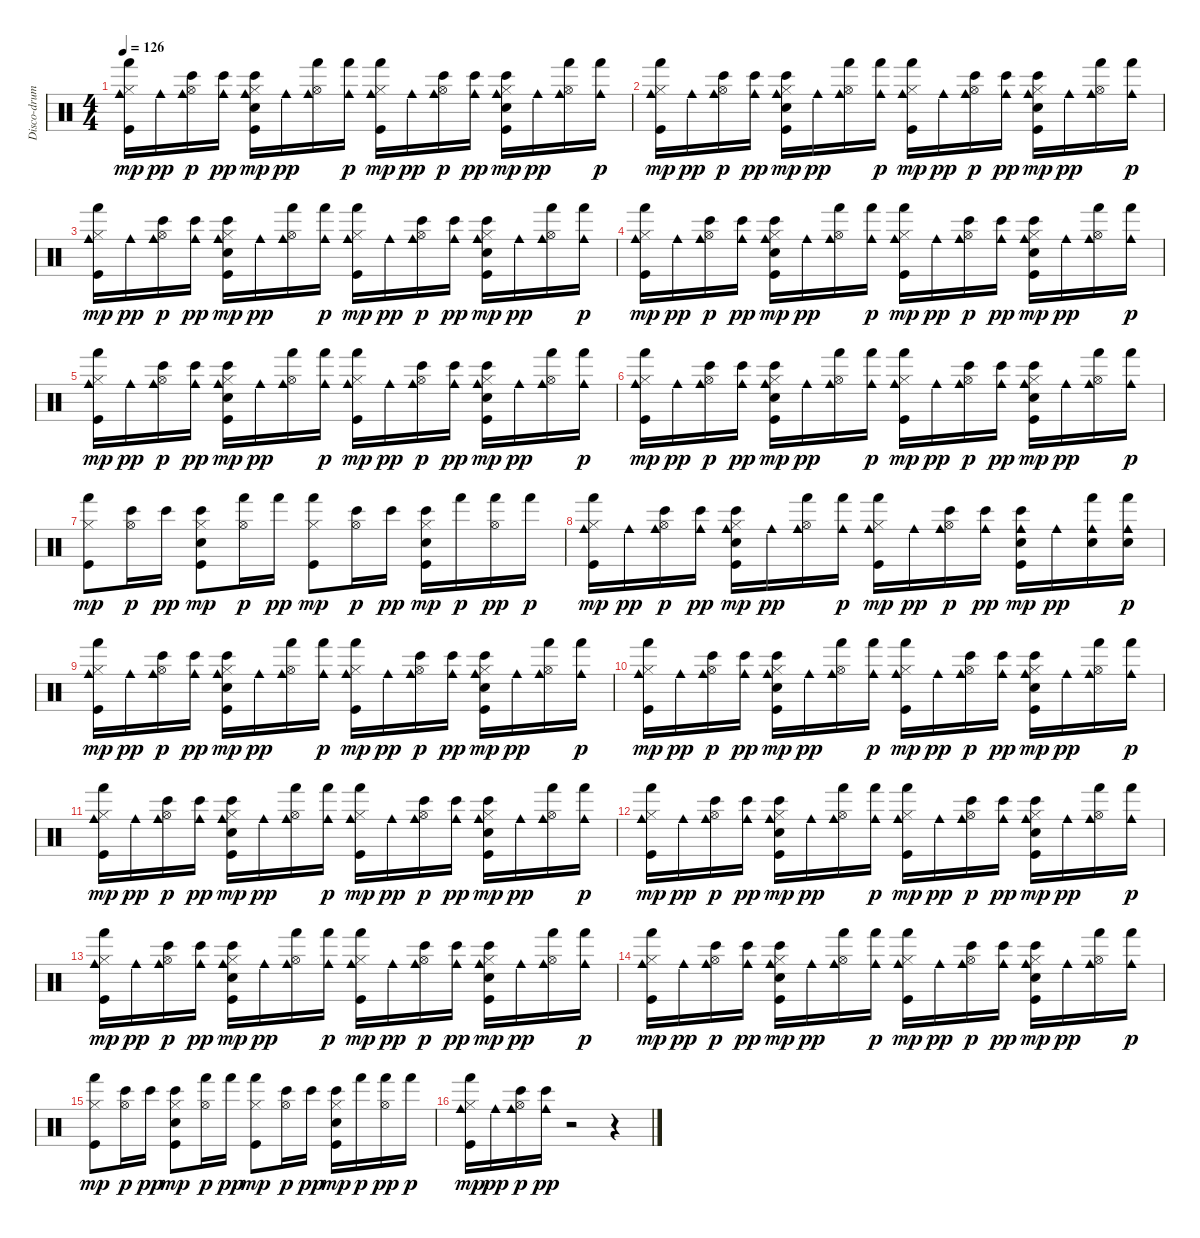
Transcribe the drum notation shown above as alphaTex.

\track ("Disco-drums !" "Disco-drum") {instrument percussion}
\staff {score}
\articulation defaults
\ts (4 4)
\tempo 126
\clef neutral
\ks c
("Hi-Hat (closed)" "Kick (hit)" "Cowbell medium (hit)" "Hand (hit)").16{dy mp} "Cowbell medium (hit)".16{dy pp} ("Hi-Hat (open)" "Cowbell medium (hit)" "Bongo High (hit)").16{dy p} ("Cowbell medium (hit)" "Bongo High (hit)").16{dy pp} ("Hi-Hat (closed)" "Kick (hit)" "Snare (hit) 2" "Cowbell medium (hit)" "Bongo High (hit)").16{dy mp} "Cowbell medium (hit)".16{dy pp} ("Hi-Hat (open)" "Cowbell medium (hit)" "Hand (hit)").16 ("Cowbell medium (hit)" "Hand (hit)").16{dy p} ("Hi-Hat (closed)" "Kick (hit)" "Cowbell medium (hit)" "Hand (hit)").16{dy mp} "Cowbell medium (hit)".16{dy pp} ("Hi-Hat (open)" "Cowbell medium (hit)" "Bongo High (hit)").16{dy p} ("Cowbell medium (hit)" "Bongo High (hit)").16{dy pp} ("Hi-Hat (closed)" "Kick (hit)" "Snare (hit) 2" "Cowbell medium (hit)" "Bongo High (hit)").16{dy mp} "Cowbell medium (hit)".16{dy pp} ("Hi-Hat (open)" "Cowbell medium (hit)" "Hand (hit)").16 ("Cowbell medium (hit)" "Hand (hit)").16{dy p} |
("Hi-Hat (closed)" "Kick (hit)" "Cowbell medium (hit)" "Hand (hit)").16{dy mp} "Cowbell medium (hit)".16{dy pp} ("Hi-Hat (open)" "Cowbell medium (hit)" "Bongo High (hit)").16{dy p} ("Cowbell medium (hit)" "Bongo High (hit)").16{dy pp} ("Hi-Hat (closed)" "Kick (hit)" "Snare (hit) 2" "Cowbell medium (hit)" "Bongo High (hit)").16{dy mp} "Cowbell medium (hit)".16{dy pp} ("Hi-Hat (open)" "Cowbell medium (hit)" "Hand (hit)").16 ("Cowbell medium (hit)" "Hand (hit)").16{dy p} ("Hi-Hat (closed)" "Kick (hit)" "Cowbell medium (hit)" "Hand (hit)").16{dy mp} "Cowbell medium (hit)".16{dy pp} ("Hi-Hat (open)" "Cowbell medium (hit)" "Bongo High (hit)").16{dy p} ("Cowbell medium (hit)" "Bongo High (hit)").16{dy pp} ("Hi-Hat (closed)" "Kick (hit)" "Snare (hit) 2" "Cowbell medium (hit)" "Bongo High (hit)").16{dy mp} "Cowbell medium (hit)".16{dy pp} ("Hi-Hat (open)" "Cowbell medium (hit)" "Hand (hit)").16 ("Cowbell medium (hit)" "Hand (hit)").16{dy p} |
("Hi-Hat (closed)" "Kick (hit)" "Cowbell medium (hit)" "Hand (hit)").16{dy mp} "Cowbell medium (hit)".16{dy pp} ("Hi-Hat (open)" "Cowbell medium (hit)" "Bongo High (hit)").16{dy p} ("Cowbell medium (hit)" "Bongo High (hit)").16{dy pp} ("Hi-Hat (closed)" "Kick (hit)" "Snare (hit) 2" "Cowbell medium (hit)" "Bongo High (hit)").16{dy mp} "Cowbell medium (hit)".16{dy pp} ("Hi-Hat (open)" "Cowbell medium (hit)" "Hand (hit)").16 ("Cowbell medium (hit)" "Hand (hit)").16{dy p} ("Hi-Hat (closed)" "Kick (hit)" "Cowbell medium (hit)" "Hand (hit)").16{dy mp} "Cowbell medium (hit)".16{dy pp} ("Hi-Hat (open)" "Cowbell medium (hit)" "Bongo High (hit)").16{dy p} ("Cowbell medium (hit)" "Bongo High (hit)").16{dy pp} ("Hi-Hat (closed)" "Kick (hit)" "Snare (hit) 2" "Cowbell medium (hit)" "Bongo High (hit)").16{dy mp} "Cowbell medium (hit)".16{dy pp} ("Hi-Hat (open)" "Cowbell medium (hit)" "Hand (hit)").16 ("Cowbell medium (hit)" "Hand (hit)").16{dy p} |
("Hi-Hat (closed)" "Kick (hit)" "Cowbell medium (hit)" "Hand (hit)").16{dy mp} "Cowbell medium (hit)".16{dy pp} ("Hi-Hat (open)" "Cowbell medium (hit)" "Bongo High (hit)").16{dy p} ("Cowbell medium (hit)" "Bongo High (hit)").16{dy pp} ("Hi-Hat (closed)" "Kick (hit)" "Snare (hit) 2" "Cowbell medium (hit)" "Bongo High (hit)").16{dy mp} "Cowbell medium (hit)".16{dy pp} ("Hi-Hat (open)" "Cowbell medium (hit)" "Hand (hit)").16 ("Cowbell medium (hit)" "Hand (hit)").16{dy p} ("Hi-Hat (closed)" "Kick (hit)" "Cowbell medium (hit)" "Hand (hit)").16{dy mp} "Cowbell medium (hit)".16{dy pp} ("Hi-Hat (open)" "Cowbell medium (hit)" "Bongo High (hit)").16{dy p} ("Cowbell medium (hit)" "Bongo High (hit)").16{dy pp} ("Hi-Hat (closed)" "Kick (hit)" "Snare (hit) 2" "Cowbell medium (hit)" "Bongo High (hit)").16{dy mp} "Cowbell medium (hit)".16{dy pp} ("Hi-Hat (open)" "Cowbell medium (hit)" "Hand (hit)").16 ("Cowbell medium (hit)" "Hand (hit)").16{dy p} |
("Hi-Hat (closed)" "Kick (hit)" "Cowbell medium (hit)" "Hand (hit)").16{dy mp} "Cowbell medium (hit)".16{dy pp} ("Hi-Hat (open)" "Cowbell medium (hit)" "Bongo High (hit)").16{dy p} ("Cowbell medium (hit)" "Bongo High (hit)").16{dy pp} ("Hi-Hat (closed)" "Kick (hit)" "Snare (hit) 2" "Cowbell medium (hit)" "Bongo High (hit)").16{dy mp} "Cowbell medium (hit)".16{dy pp} ("Hi-Hat (open)" "Cowbell medium (hit)" "Hand (hit)").16 ("Cowbell medium (hit)" "Hand (hit)").16{dy p} ("Hi-Hat (closed)" "Kick (hit)" "Cowbell medium (hit)" "Hand (hit)").16{dy mp} "Cowbell medium (hit)".16{dy pp} ("Hi-Hat (open)" "Cowbell medium (hit)" "Bongo High (hit)").16{dy p} ("Cowbell medium (hit)" "Bongo High (hit)").16{dy pp} ("Hi-Hat (closed)" "Kick (hit)" "Snare (hit) 2" "Cowbell medium (hit)" "Bongo High (hit)").16{dy mp} "Cowbell medium (hit)".16{dy pp} ("Hi-Hat (open)" "Cowbell medium (hit)" "Hand (hit)").16 ("Cowbell medium (hit)" "Hand (hit)").16{dy p} |
("Hi-Hat (closed)" "Kick (hit)" "Cowbell medium (hit)" "Hand (hit)").16{dy mp} "Cowbell medium (hit)".16{dy pp} ("Hi-Hat (open)" "Cowbell medium (hit)" "Bongo High (hit)").16{dy p} ("Cowbell medium (hit)" "Bongo High (hit)").16{dy pp} ("Hi-Hat (closed)" "Kick (hit)" "Snare (hit) 2" "Cowbell medium (hit)" "Bongo High (hit)").16{dy mp} "Cowbell medium (hit)".16{dy pp} ("Hi-Hat (open)" "Cowbell medium (hit)" "Hand (hit)").16 ("Cowbell medium (hit)" "Hand (hit)").16{dy p} ("Hi-Hat (closed)" "Kick (hit)" "Cowbell medium (hit)" "Hand (hit)").16{dy mp} "Cowbell medium (hit)".16{dy pp} ("Hi-Hat (open)" "Cowbell medium (hit)" "Bongo High (hit)").16{dy p} ("Cowbell medium (hit)" "Bongo High (hit)").16{dy pp} ("Hi-Hat (closed)" "Kick (hit)" "Snare (hit) 2" "Cowbell medium (hit)" "Bongo High (hit)").16{dy mp} "Cowbell medium (hit)".16{dy pp} ("Hi-Hat (open)" "Cowbell medium (hit)" "Hand (hit)").16 ("Cowbell medium (hit)" "Hand (hit)").16{dy p} |
("Hi-Hat (closed)" "Kick (hit)" "Hand (hit)").8{dy mp} ("Hi-Hat (open)" "Bongo High (hit)").16{dy p} "Bongo High (hit)".16{dy pp} ("Hi-Hat (closed)" "Kick (hit)" "Snare (hit) 2" "Bongo High (hit)").8{dy mp} ("Hi-Hat (open)" "Hand (hit)").16{dy p} "Hand (hit)".16{dy pp} ("Hi-Hat (closed)" "Kick (hit)" "Hand (hit)").8{dy mp} ("Hi-Hat (open)" "Bongo High (hit)").16{dy p} "Bongo High (hit)".16{dy pp} ("Hi-Hat (closed)" "Kick (hit)" "Snare (hit) 2" "Bongo High (hit)").16{dy mp} "Hand (hit)".16{dy p} ("Hi-Hat (open)" "Hand (hit)").16{dy pp} "Hand (hit)".16{dy p} |
("Hi-Hat (closed)" "Kick (hit)" "Cowbell medium (hit)" "Hand (hit)").16{dy mp} "Cowbell medium (hit)".16{dy pp} ("Hi-Hat (open)" "Cowbell medium (hit)" "Bongo High (hit)").16{dy p} ("Cowbell medium (hit)" "Bongo High (hit)").16{dy pp} ("Hi-Hat (closed)" "Kick (hit)" "Snare (hit) 2" "Cowbell medium (hit)" "Bongo High (hit)").16{dy mp} "Cowbell medium (hit)".16{dy pp} ("Hi-Hat (open)" "Cowbell medium (hit)" "Hand (hit)").16 ("Cowbell medium (hit)" "Hand (hit)").16{dy p} ("Hi-Hat (closed)" "Kick (hit)" "Cowbell medium (hit)" "Hand (hit)").16{dy mp} "Cowbell medium (hit)".16{dy pp} ("Hi-Hat (open)" "Cowbell medium (hit)" "Bongo High (hit)").16{dy p} ("Cowbell medium (hit)" "Bongo High (hit)").16{dy pp} ("Kick (hit)" "Snare (hit) 2" "Cowbell medium (hit)" "Bongo High (hit)").16{dy mp} "Cowbell medium (hit)".16{dy pp} ("Snare (hit) 2" "Cowbell medium (hit)" "Hand (hit)").16 ("Snare (hit) 2" "Cowbell medium (hit)" "Hand (hit)").16{dy p} |
("Hi-Hat (closed)" "Kick (hit)" "Cowbell medium (hit)" "Hand (hit)").16{dy mp volume 11} "Cowbell medium (hit)".16{dy pp} ("Hi-Hat (open)" "Cowbell medium (hit)" "Bongo High (hit)").16{dy p} ("Cowbell medium (hit)" "Bongo High (hit)").16{dy pp} ("Hi-Hat (closed)" "Kick (hit)" "Snare (hit) 2" "Cowbell medium (hit)" "Bongo High (hit)").16{dy mp volume 10} "Cowbell medium (hit)".16{dy pp} ("Hi-Hat (open)" "Cowbell medium (hit)" "Hand (hit)").16 ("Cowbell medium (hit)" "Hand (hit)").16{dy p} ("Hi-Hat (closed)" "Kick (hit)" "Cowbell medium (hit)" "Hand (hit)").16{dy mp volume 10} "Cowbell medium (hit)".16{dy pp} ("Hi-Hat (open)" "Cowbell medium (hit)" "Bongo High (hit)").16{dy p} ("Cowbell medium (hit)" "Bongo High (hit)").16{dy pp} ("Hi-Hat (closed)" "Kick (hit)" "Snare (hit) 2" "Cowbell medium (hit)" "Bongo High (hit)").16{dy mp volume 10} "Cowbell medium (hit)".16{dy pp} ("Hi-Hat (open)" "Cowbell medium (hit)" "Hand (hit)").16 ("Cowbell medium (hit)" "Hand (hit)").16{dy p} |
("Hi-Hat (closed)" "Kick (hit)" "Cowbell medium (hit)" "Hand (hit)").16{dy mp volume 9} "Cowbell medium (hit)".16{dy pp} ("Hi-Hat (open)" "Cowbell medium (hit)" "Bongo High (hit)").16{dy p} ("Cowbell medium (hit)" "Bongo High (hit)").16{dy pp} ("Hi-Hat (closed)" "Kick (hit)" "Snare (hit) 2" "Cowbell medium (hit)" "Bongo High (hit)").16{dy mp volume 9} "Cowbell medium (hit)".16{dy pp} ("Hi-Hat (open)" "Cowbell medium (hit)" "Hand (hit)").16 ("Cowbell medium (hit)" "Hand (hit)").16{dy p} ("Hi-Hat (closed)" "Kick (hit)" "Cowbell medium (hit)" "Hand (hit)").16{dy mp volume 8} "Cowbell medium (hit)".16{dy pp} ("Hi-Hat (open)" "Cowbell medium (hit)" "Bongo High (hit)").16{dy p} ("Cowbell medium (hit)" "Bongo High (hit)").16{dy pp} ("Hi-Hat (closed)" "Kick (hit)" "Snare (hit) 2" "Cowbell medium (hit)" "Bongo High (hit)").16{dy mp volume 8} "Cowbell medium (hit)".16{dy pp} ("Hi-Hat (open)" "Cowbell medium (hit)" "Hand (hit)").16 ("Cowbell medium (hit)" "Hand (hit)").16{dy p} |
("Hi-Hat (closed)" "Kick (hit)" "Cowbell medium (hit)" "Hand (hit)").16{dy mp volume 8} "Cowbell medium (hit)".16{dy pp} ("Hi-Hat (open)" "Cowbell medium (hit)" "Bongo High (hit)").16{dy p} ("Cowbell medium (hit)" "Bongo High (hit)").16{dy pp} ("Hi-Hat (closed)" "Kick (hit)" "Snare (hit) 2" "Cowbell medium (hit)" "Bongo High (hit)").16{dy mp volume 7} "Cowbell medium (hit)".16{dy pp} ("Hi-Hat (open)" "Cowbell medium (hit)" "Hand (hit)").16 ("Cowbell medium (hit)" "Hand (hit)").16{dy p} ("Hi-Hat (closed)" "Kick (hit)" "Cowbell medium (hit)" "Hand (hit)").16{dy mp volume 7} "Cowbell medium (hit)".16{dy pp} ("Hi-Hat (open)" "Cowbell medium (hit)" "Bongo High (hit)").16{dy p} ("Cowbell medium (hit)" "Bongo High (hit)").16{dy pp} ("Hi-Hat (closed)" "Kick (hit)" "Snare (hit) 2" "Cowbell medium (hit)" "Bongo High (hit)").16{dy mp volume 6} "Cowbell medium (hit)".16{dy pp} ("Hi-Hat (open)" "Cowbell medium (hit)" "Hand (hit)").16 ("Cowbell medium (hit)" "Hand (hit)").16{dy p} |
("Hi-Hat (closed)" "Kick (hit)" "Cowbell medium (hit)" "Hand (hit)").16{dy mp volume 6} "Cowbell medium (hit)".16{dy pp} ("Hi-Hat (open)" "Cowbell medium (hit)" "Bongo High (hit)").16{dy p} ("Cowbell medium (hit)" "Bongo High (hit)").16{dy pp} ("Hi-Hat (closed)" "Kick (hit)" "Snare (hit) 2" "Cowbell medium (hit)" "Bongo High (hit)").16{dy mp volume 6} "Cowbell medium (hit)".16{dy pp} ("Hi-Hat (open)" "Cowbell medium (hit)" "Hand (hit)").16 ("Cowbell medium (hit)" "Hand (hit)").16{dy p} ("Hi-Hat (closed)" "Kick (hit)" "Cowbell medium (hit)" "Hand (hit)").16{dy mp volume 5} "Cowbell medium (hit)".16{dy pp} ("Hi-Hat (open)" "Cowbell medium (hit)" "Bongo High (hit)").16{dy p} ("Cowbell medium (hit)" "Bongo High (hit)").16{dy pp} ("Hi-Hat (closed)" "Kick (hit)" "Snare (hit) 2" "Cowbell medium (hit)" "Bongo High (hit)").16{dy mp volume 5} "Cowbell medium (hit)".16{dy pp} ("Hi-Hat (open)" "Cowbell medium (hit)" "Hand (hit)").16 ("Cowbell medium (hit)" "Hand (hit)").16{dy p} |
("Hi-Hat (closed)" "Kick (hit)" "Cowbell medium (hit)" "Hand (hit)").16{dy mp volume 5} "Cowbell medium (hit)".16{dy pp} ("Hi-Hat (open)" "Cowbell medium (hit)" "Bongo High (hit)").16{dy p} ("Cowbell medium (hit)" "Bongo High (hit)").16{dy pp} ("Hi-Hat (closed)" "Kick (hit)" "Snare (hit) 2" "Cowbell medium (hit)" "Bongo High (hit)").16{dy mp volume 4} "Cowbell medium (hit)".16{dy pp} ("Hi-Hat (open)" "Cowbell medium (hit)" "Hand (hit)").16 ("Cowbell medium (hit)" "Hand (hit)").16{dy p} ("Hi-Hat (closed)" "Kick (hit)" "Cowbell medium (hit)" "Hand (hit)").16{dy mp volume 4} "Cowbell medium (hit)".16{dy pp} ("Hi-Hat (open)" "Cowbell medium (hit)" "Bongo High (hit)").16{dy p} ("Cowbell medium (hit)" "Bongo High (hit)").16{dy pp} ("Hi-Hat (closed)" "Kick (hit)" "Snare (hit) 2" "Cowbell medium (hit)" "Bongo High (hit)").16{dy mp volume 4} "Cowbell medium (hit)".16{dy pp} ("Hi-Hat (open)" "Cowbell medium (hit)" "Hand (hit)").16 ("Cowbell medium (hit)" "Hand (hit)").16{dy p} |
("Hi-Hat (closed)" "Kick (hit)" "Cowbell medium (hit)" "Hand (hit)").16{dy mp volume 3} "Cowbell medium (hit)".16{dy pp} ("Hi-Hat (open)" "Cowbell medium (hit)" "Bongo High (hit)").16{dy p} ("Cowbell medium (hit)" "Bongo High (hit)").16{dy pp volume 3} ("Hi-Hat (closed)" "Kick (hit)" "Snare (hit) 2" "Cowbell medium (hit)" "Bongo High (hit)").16{dy mp} "Cowbell medium (hit)".16{dy pp} ("Hi-Hat (open)" "Cowbell medium (hit)" "Hand (hit)").16 ("Cowbell medium (hit)" "Hand (hit)").16{dy p volume 2} ("Hi-Hat (closed)" "Kick (hit)" "Cowbell medium (hit)" "Hand (hit)").16{dy mp} "Cowbell medium (hit)".16{dy pp} ("Hi-Hat (open)" "Cowbell medium (hit)" "Bongo High (hit)").16{dy p} ("Cowbell medium (hit)" "Bongo High (hit)").16{dy pp volume 2} ("Hi-Hat (closed)" "Kick (hit)" "Snare (hit) 2" "Cowbell medium (hit)" "Bongo High (hit)").16{dy mp} "Cowbell medium (hit)".16{dy pp} ("Hi-Hat (open)" "Cowbell medium (hit)" "Hand (hit)").16 ("Cowbell medium (hit)" "Hand (hit)").16{dy p volume 2} |
("Hi-Hat (closed)" "Kick (hit)" "Hand (hit)").8{dy mp} ("Hi-Hat (open)" "Bongo High (hit)").16{dy p} "Bongo High (hit)".16{dy pp volume 1} ("Hi-Hat (closed)" "Kick (hit)" "Snare (hit) 2" "Bongo High (hit)").8{dy mp} ("Hi-Hat (open)" "Hand (hit)").16{dy p} "Hand (hit)".16{dy pp volume 1} ("Hi-Hat (closed)" "Kick (hit)" "Hand (hit)").8{dy mp} ("Hi-Hat (open)" "Bongo High (hit)").16{dy p} "Bongo High (hit)".16{dy pp volume 0} ("Hi-Hat (closed)" "Kick (hit)" "Snare (hit) 2" "Bongo High (hit)").16{dy mp} "Hand (hit)".16{dy p} ("Hi-Hat (open)" "Hand (hit)").16{dy pp} "Hand (hit)".16{dy p volume 0} |
("Hi-Hat (closed)" "Kick (hit)" "Cowbell medium (hit)" "Hand (hit)").16{dy mp volume 0} "Cowbell medium (hit)".16{dy pp} ("Hi-Hat (open)" "Cowbell medium (hit)" "Bongo High (hit)").16{dy p} ("Cowbell medium (hit)" "Bongo High (hit)").16{dy pp} r.2 r.4
